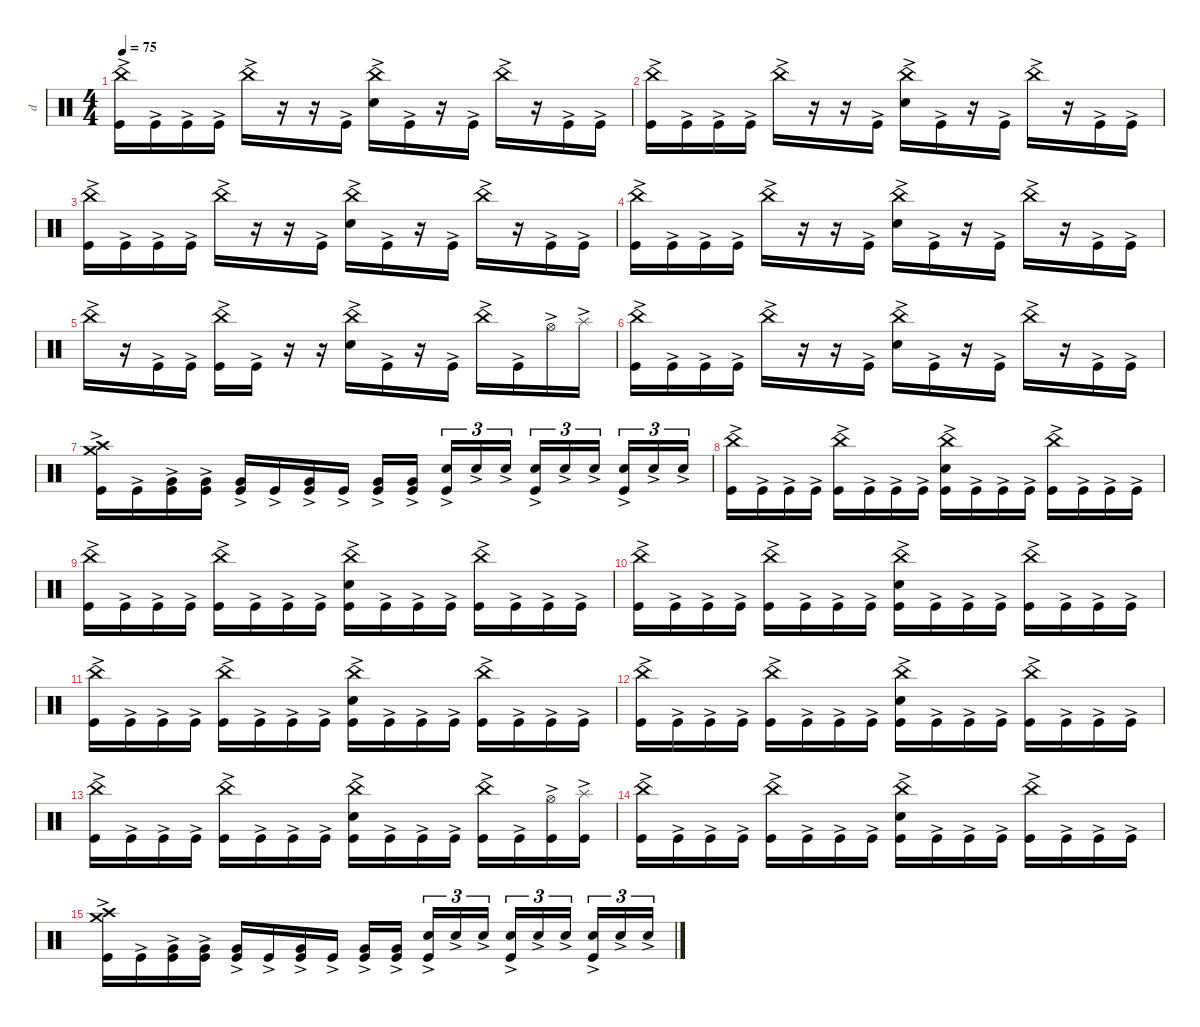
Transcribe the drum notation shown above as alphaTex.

\defaultSystemsLayout 4
\hideDynamics
\bracketExtendMode nobrackets
\otherSystemsTrackNameOrientation horizontal
\track ("Drumkit" "d") {instrument percussion}
\staff {score}
\articulation defaults
\ts (4 4)
\tempo 75
\clef neutral
\ks c
("China (hit)"{ac} "Kick (hit)"{ac}).16{dy mf} "Kick (hit)"{ac}.16 "Kick (hit)"{ac}.16 "Kick (hit)"{ac}.16 "China (hit)"{ac}.16 r.16 r.16 "Kick (hit)"{ac}.16 ("China (hit)"{ac} "Snare (hit) 2"{ac}).16 "Kick (hit)"{ac}.16 r.16 "Kick (hit)"{ac}.16 "China (hit)"{ac}.16 r.16 "Kick (hit)"{ac}.16 "Kick (hit)"{ac}.16 |
("China (hit)"{ac} "Kick (hit)"{ac}).16 "Kick (hit)"{ac}.16 "Kick (hit)"{ac}.16 "Kick (hit)"{ac}.16 "China (hit)"{ac}.16 r.16 r.16 "Kick (hit)"{ac}.16 ("China (hit)"{ac} "Snare (hit) 2"{ac}).16 "Kick (hit)"{ac}.16 r.16 "Kick (hit)"{ac}.16 "China (hit)"{ac}.16 r.16 "Kick (hit)"{ac}.16 "Kick (hit)"{ac}.16 |
("China (hit)"{ac} "Kick (hit)"{ac}).16 "Kick (hit)"{ac}.16 "Kick (hit)"{ac}.16 "Kick (hit)"{ac}.16 "China (hit)"{ac}.16 r.16 r.16 "Kick (hit)"{ac}.16 ("China (hit)"{ac} "Snare (hit) 2"{ac}).16 "Kick (hit)"{ac}.16 r.16 "Kick (hit)"{ac}.16 "China (hit)"{ac}.16 r.16 "Kick (hit)"{ac}.16 "Kick (hit)"{ac}.16 |
("China (hit)"{ac} "Kick (hit)"{ac}).16 "Kick (hit)"{ac}.16 "Kick (hit)"{ac}.16 "Kick (hit)"{ac}.16 "China (hit)"{ac}.16 r.16 r.16 "Kick (hit)"{ac}.16 ("China (hit)"{ac} "Snare (hit) 2"{ac}).16 "Kick (hit)"{ac}.16 r.16 "Kick (hit)"{ac}.16 "China (hit)"{ac}.16 r.16 "Kick (hit)"{ac}.16 "Kick (hit)"{ac}.16 |
"China (hit)"{ac}.16 r.16 "Kick (hit)"{ac}.16 "Kick (hit)"{ac}.16 ("China (hit)"{ac} "Kick (hit)"{ac}).16 "Kick (hit)"{ac}.16 r.16 r.16 ("China (hit)"{ac} "Snare (hit) 2"{ac}).16 "Kick (hit)"{ac}.16 r.16 "Kick (hit)"{ac}.16 "China (hit)"{ac}.16 "Kick (hit)"{ac}.16 "Hi-Hat (open)"{ac}.16 "Splash (hit)"{ac}.16 |
("China (hit)"{ac} "Kick (hit)"{ac}).16 "Kick (hit)"{ac}.16 "Kick (hit)"{ac}.16 "Kick (hit)"{ac}.16 "China (hit)"{ac}.16 r.16 r.16 "Kick (hit)"{ac}.16 ("China (hit)"{ac} "Snare (hit) 2"{ac}).16 "Kick (hit)"{ac}.16 r.16 "Kick (hit)"{ac}.16 "China (hit)"{ac}.16 r.16 "Kick (hit)"{ac}.16 "Kick (hit)"{ac}.16 |
("Crash high (hit)"{ac} "Crash medium (hit)"{ac} "Kick (hit)"{ac}).16 "Kick (hit)"{ac}.16 ("Very Low Tom (hit)"{ac} "Kick (hit)"{ac}).16 ("Very Low Tom (hit)"{ac} "Kick (hit)"{ac}).16 ("Very Low Tom (hit)"{ac} "Kick (hit)"{ac}).16 "Kick (hit)"{ac}.16 ("Very Low Tom (hit)"{ac} "Kick (hit)"{ac}).16 "Kick (hit)"{ac}.16 ("Very Low Tom (hit)"{ac} "Kick (hit)"{ac}).16 ("Very Low Tom (hit)"{ac} "Kick (hit)"{ac}).16 ("Snare (hit) 2"{ac} "Kick (hit)"{ac}).16{tu (3 2)} "Snare (hit) 2"{ac}.16{tu (3 2)} "Snare (hit) 2"{ac}.16{tu (3 2)} ("Snare (hit) 2"{ac} "Kick (hit)"{ac}).16{tu (3 2)} "Snare (hit) 2"{ac}.16{tu (3 2)} "Snare (hit) 2"{ac}.16{tu (3 2)} ("Snare (hit) 2"{ac} "Kick (hit)"{ac}).16{tu (3 2)} "Snare (hit) 2"{ac}.16{tu (3 2)} "Snare (hit) 2"{ac}.16{tu (3 2)} |
("China (hit)"{ac} "Kick (hit)"{ac}).16 "Kick (hit)"{ac}.16 "Kick (hit)"{ac}.16 "Kick (hit)"{ac}.16 ("China (hit)"{ac} "Kick (hit)"{ac}).16 "Kick (hit)"{ac}.16 "Kick (hit)"{ac}.16 "Kick (hit)"{ac}.16 ("China (hit)"{ac} "Snare (hit) 2"{ac} "Kick (hit)"{ac}).16 "Kick (hit)"{ac}.16 "Kick (hit)"{ac}.16 "Kick (hit)"{ac}.16 ("China (hit)"{ac} "Kick (hit)"{ac}).16 "Kick (hit)"{ac}.16 "Kick (hit)"{ac}.16 "Kick (hit)"{ac}.16 |
("China (hit)"{ac} "Kick (hit)"{ac}).16 "Kick (hit)"{ac}.16 "Kick (hit)"{ac}.16 "Kick (hit)"{ac}.16 ("China (hit)"{ac} "Kick (hit)"{ac}).16 "Kick (hit)"{ac}.16 "Kick (hit)"{ac}.16 "Kick (hit)"{ac}.16 ("China (hit)"{ac} "Snare (hit) 2"{ac} "Kick (hit)"{ac}).16 "Kick (hit)"{ac}.16 "Kick (hit)"{ac}.16 "Kick (hit)"{ac}.16 ("China (hit)"{ac} "Kick (hit)"{ac}).16 "Kick (hit)"{ac}.16 "Kick (hit)"{ac}.16 "Kick (hit)"{ac}.16 |
("China (hit)"{ac} "Kick (hit)"{ac}).16 "Kick (hit)"{ac}.16 "Kick (hit)"{ac}.16 "Kick (hit)"{ac}.16 ("China (hit)"{ac} "Kick (hit)"{ac}).16 "Kick (hit)"{ac}.16 "Kick (hit)"{ac}.16 "Kick (hit)"{ac}.16 ("China (hit)"{ac} "Snare (hit) 2"{ac} "Kick (hit)"{ac}).16 "Kick (hit)"{ac}.16 "Kick (hit)"{ac}.16 "Kick (hit)"{ac}.16 ("China (hit)"{ac} "Kick (hit)"{ac}).16 "Kick (hit)"{ac}.16 "Kick (hit)"{ac}.16 "Kick (hit)"{ac}.16 |
("China (hit)"{ac} "Kick (hit)"{ac}).16 "Kick (hit)"{ac}.16 "Kick (hit)"{ac}.16 "Kick (hit)"{ac}.16 ("China (hit)"{ac} "Kick (hit)"{ac}).16 "Kick (hit)"{ac}.16 "Kick (hit)"{ac}.16 "Kick (hit)"{ac}.16 ("China (hit)"{ac} "Snare (hit) 2"{ac} "Kick (hit)"{ac}).16 "Kick (hit)"{ac}.16 "Kick (hit)"{ac}.16 "Kick (hit)"{ac}.16 ("China (hit)"{ac} "Kick (hit)"{ac}).16 "Kick (hit)"{ac}.16 "Kick (hit)"{ac}.16 "Kick (hit)"{ac}.16 |
("China (hit)"{ac} "Kick (hit)"{ac}).16 "Kick (hit)"{ac}.16 "Kick (hit)"{ac}.16 "Kick (hit)"{ac}.16 ("China (hit)"{ac} "Kick (hit)"{ac}).16 "Kick (hit)"{ac}.16 "Kick (hit)"{ac}.16 "Kick (hit)"{ac}.16 ("China (hit)"{ac} "Snare (hit) 2"{ac} "Kick (hit)"{ac}).16 "Kick (hit)"{ac}.16 "Kick (hit)"{ac}.16 "Kick (hit)"{ac}.16 ("China (hit)"{ac} "Kick (hit)"{ac}).16 "Kick (hit)"{ac}.16 "Kick (hit)"{ac}.16 "Kick (hit)"{ac}.16 |
("China (hit)"{ac} "Kick (hit)"{ac}).16 "Kick (hit)"{ac}.16 "Kick (hit)"{ac}.16 "Kick (hit)"{ac}.16 ("China (hit)"{ac} "Kick (hit)"{ac}).16 "Kick (hit)"{ac}.16 "Kick (hit)"{ac}.16 "Kick (hit)"{ac}.16 ("China (hit)"{ac} "Snare (hit) 2"{ac} "Kick (hit)"{ac}).16 "Kick (hit)"{ac}.16 "Kick (hit)"{ac}.16 "Kick (hit)"{ac}.16 ("China (hit)"{ac} "Kick (hit)"{ac}).16 "Kick (hit)"{ac}.16 ("Hi-Hat (open)"{ac} "Kick (hit)"{ac}).16 ("Splash (hit)"{ac} "Kick (hit)"{ac}).16 |
("China (hit)"{ac} "Kick (hit)"{ac}).16 "Kick (hit)"{ac}.16 "Kick (hit)"{ac}.16 "Kick (hit)"{ac}.16 ("China (hit)"{ac} "Kick (hit)"{ac}).16 "Kick (hit)"{ac}.16 "Kick (hit)"{ac}.16 "Kick (hit)"{ac}.16 ("China (hit)"{ac} "Snare (hit) 2"{ac} "Kick (hit)"{ac}).16 "Kick (hit)"{ac}.16 "Kick (hit)"{ac}.16 "Kick (hit)"{ac}.16 ("China (hit)"{ac} "Kick (hit)"{ac}).16 "Kick (hit)"{ac}.16 "Kick (hit)"{ac}.16 "Kick (hit)"{ac}.16 |
("Crash high (hit)"{ac} "Crash medium (hit)"{ac} "Kick (hit)"{ac}).16 "Kick (hit)"{ac}.16 ("Very Low Tom (hit)"{ac} "Kick (hit)"{ac}).16 ("Very Low Tom (hit)"{ac} "Kick (hit)"{ac}).16 ("Very Low Tom (hit)"{ac} "Kick (hit)"{ac}).16 "Kick (hit)"{ac}.16 ("Very Low Tom (hit)"{ac} "Kick (hit)"{ac}).16 "Kick (hit)"{ac}.16 ("Very Low Tom (hit)"{ac} "Kick (hit)"{ac}).16 ("Very Low Tom (hit)"{ac} "Kick (hit)"{ac}).16 ("Snare (hit) 2"{ac} "Kick (hit)"{ac}).16{tu (3 2)} "Snare (hit) 2"{ac}.16{tu (3 2)} "Snare (hit) 2"{ac}.16{tu (3 2)} ("Snare (hit) 2"{ac} "Kick (hit)"{ac}).16{tu (3 2)} "Snare (hit) 2"{ac}.16{tu (3 2)} "Snare (hit) 2"{ac}.16{tu (3 2)} ("Snare (hit) 2"{ac} "Kick (hit)"{ac}).16{tu (3 2)} "Snare (hit) 2"{ac}.16{tu (3 2)} "Snare (hit) 2"{ac}.16{tu (3 2)}
